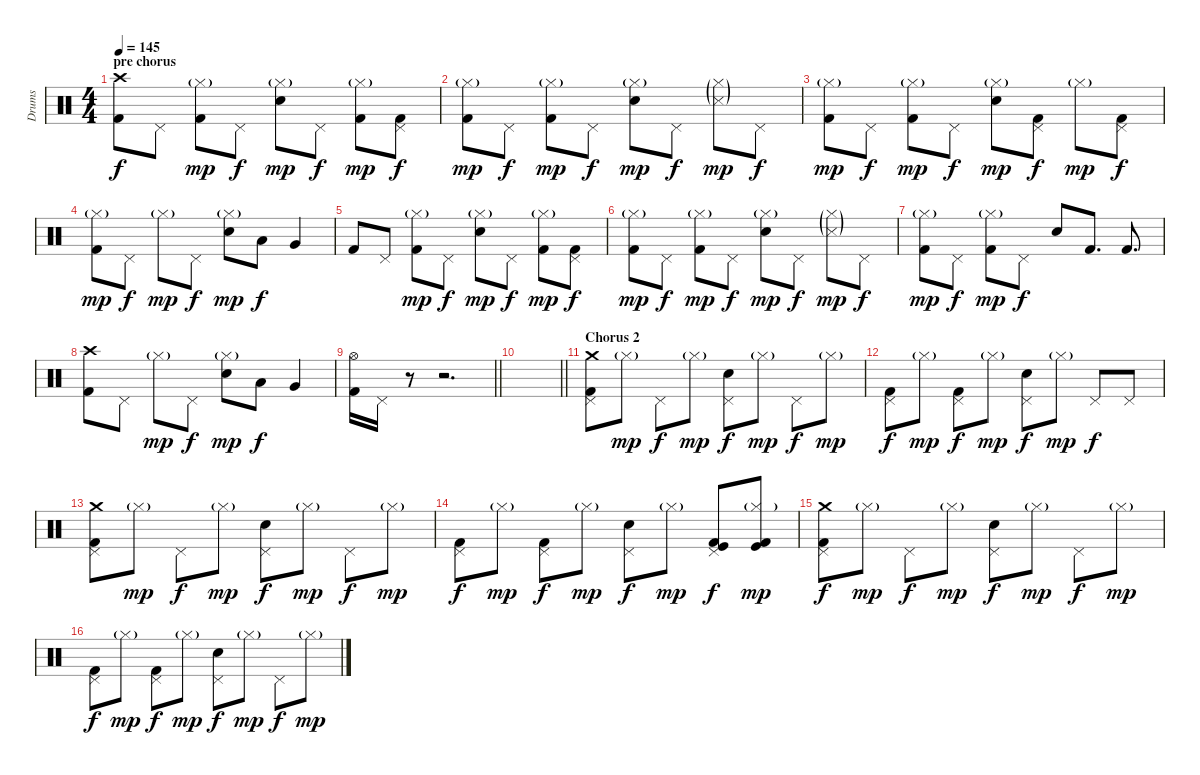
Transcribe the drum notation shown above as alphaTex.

\track ("Drums" "Drums") {instrument percussion}
\staff {score}
\articulation defaults
\ts (4 4)
\section ("" "pre chorus")
\tempo 145
\clef neutral
\ks c
("Crash high (hit)" "Kick (hit) 2").8{dy f} "Pedal Hi-Hat (hit)".8 ("Hi-Hat (closed)"{g} "Kick (hit) 2").8{dy mp} "Pedal Hi-Hat (hit)".8{dy f} ("Hi-Hat (closed)"{g} "Snare (hit) 2").8{dy mp} "Pedal Hi-Hat (hit)".8{dy f} ("Hi-Hat (closed)"{g} "Kick (hit) 2").8{dy mp} ("Pedal Hi-Hat (hit)" "Kick (hit) 2").8{dy f} |
("Hi-Hat (closed)"{g} "Kick (hit) 2").8{dy mp} "Pedal Hi-Hat (hit)".8{dy f} ("Hi-Hat (closed)"{g} "Kick (hit) 2").8{dy mp} "Pedal Hi-Hat (hit)".8{dy f} ("Hi-Hat (closed)"{g} "Snare (hit) 2").8{dy mp} "Pedal Hi-Hat (hit)".8{dy f} ("Hi-Hat (closed)"{g} "Snare (side stick) 3"{g}).8{dy mp} "Pedal Hi-Hat (hit)".8{dy f} |
("Hi-Hat (closed)"{g} "Kick (hit) 2").8{dy mp} "Pedal Hi-Hat (hit)".8{dy f} ("Hi-Hat (closed)"{g} "Kick (hit) 2").8{dy mp} "Pedal Hi-Hat (hit)".8{dy f} ("Hi-Hat (closed)"{g} "Snare (hit) 2").8{dy mp} ("Pedal Hi-Hat (hit)" "Kick (hit) 2").8{dy f} "Hi-Hat (closed)"{g}.8{dy mp} ("Pedal Hi-Hat (hit)" "Kick (hit) 2").8{dy f} |
("Hi-Hat (closed)"{g} "Kick (hit) 2").8{dy mp} "Pedal Hi-Hat (hit)".8{dy f} "Hi-Hat (closed)"{g}.8{dy mp} "Pedal Hi-Hat (hit)".8{dy f} ("Hi-Hat (closed)"{g} "Snare (hit) 2").8{dy mp} "Low Tom (hit)".8{dy f} "Very Low Tom (hit)".4 |
"Kick (hit) 2".8 "Pedal Hi-Hat (hit)".8 ("Hi-Hat (closed)"{g} "Kick (hit) 2").8{dy mp} "Pedal Hi-Hat (hit)".8{dy f} ("Hi-Hat (closed)"{g} "Snare (hit) 2").8{dy mp} "Pedal Hi-Hat (hit)".8{dy f} ("Hi-Hat (closed)"{g} "Kick (hit) 2").8{dy mp} ("Pedal Hi-Hat (hit)" "Kick (hit) 2").8{dy f} |
("Hi-Hat (closed)"{g} "Kick (hit) 2").8{dy mp} "Pedal Hi-Hat (hit)".8{dy f} ("Hi-Hat (closed)"{g} "Kick (hit) 2").8{dy mp} "Pedal Hi-Hat (hit)".8{dy f} ("Hi-Hat (closed)"{g} "Snare (hit) 2").8{dy mp} "Pedal Hi-Hat (hit)".8{dy f} ("Hi-Hat (closed)"{g} "Snare (side stick) 3"{g}).8{dy mp} "Pedal Hi-Hat (hit)".8{dy f} |
("Hi-Hat (closed)"{g} "Kick (hit) 2").8{dy mp} "Pedal Hi-Hat (hit)".8{dy f} ("Hi-Hat (closed)"{g} "Kick (hit) 2").8{dy mp} "Pedal Hi-Hat (hit)".8{dy f} "Snare (hit) 2".8 "Kick (hit) 2".8{d} "Kick (hit) 2".8{d} |
("Crash high (hit)" "Kick (hit) 2").8 "Pedal Hi-Hat (hit)".8 "Hi-Hat (closed)"{g}.8{dy mp} "Pedal Hi-Hat (hit)".8{dy f} ("Hi-Hat (closed)"{g} "Snare (hit) 2").8{dy mp} "Low Tom (hit)".8{dy f} "Very Low Tom (hit)".4 |
\barLineRight lightlight
("Hi-Hat (open)" "Kick (hit) 2").16 "Pedal Hi-Hat (hit)".16 r.8 r.2{d} |
\barLineRight lightlight
|
\section ("" "Chorus 2")
("Pedal Hi-Hat (hit)" "Crash medium (hit)" "Kick (hit) 2").8 "Hi-Hat (closed)"{g}.8{dy mp} "Pedal Hi-Hat (hit)".8{dy f} "Hi-Hat (closed)"{g}.8{dy mp} ("Pedal Hi-Hat (hit)" "Snare (hit) 2").8{dy f} "Hi-Hat (closed)"{g}.8{dy mp} "Pedal Hi-Hat (hit)".8{dy f} "Hi-Hat (closed)"{g}.8{dy mp} |
("Pedal Hi-Hat (hit)" "Kick (hit) 2").8{dy f} "Hi-Hat (closed)"{g}.8{dy mp} ("Pedal Hi-Hat (hit)" "Kick (hit) 2").8{dy f} "Hi-Hat (closed)"{g}.8{dy mp} ("Pedal Hi-Hat (hit)" "Snare (hit) 2").8{dy f} "Hi-Hat (closed)"{g}.8{dy mp} "Pedal Hi-Hat (hit)".8{dy f} "Pedal Hi-Hat (hit)".8 |
("Pedal Hi-Hat (hit)" "Crash medium (hit)" "Kick (hit) 2").8 "Hi-Hat (closed)"{g}.8{dy mp} "Pedal Hi-Hat (hit)".8{dy f} "Hi-Hat (closed)"{g}.8{dy mp} ("Pedal Hi-Hat (hit)" "Snare (hit) 2").8{dy f} "Hi-Hat (closed)"{g}.8{dy mp} "Pedal Hi-Hat (hit)".8{dy f} "Hi-Hat (closed)"{g}.8{dy mp} |
("Pedal Hi-Hat (hit)" "Kick (hit) 2").8{dy f} "Hi-Hat (closed)"{g}.8{dy mp} ("Pedal Hi-Hat (hit)" "Kick (hit) 2").8{dy f} "Hi-Hat (closed)"{g}.8{dy mp} ("Pedal Hi-Hat (hit)" "Snare (hit) 2").8{dy f} "Hi-Hat (closed)"{g}.8{dy mp} ("Pedal Hi-Hat (hit)" "Kick (hit)" "Kick (hit) 2").8{dy f} ("Hi-Hat (closed)"{g} "Kick (hit)" "Kick (hit) 2").8{dy mp} |
("Pedal Hi-Hat (hit)" "Crash medium (hit)" "Kick (hit) 2").8{dy f} "Hi-Hat (closed)"{g}.8{dy mp} "Pedal Hi-Hat (hit)".8{dy f} "Hi-Hat (closed)"{g}.8{dy mp} ("Pedal Hi-Hat (hit)" "Snare (hit) 2").8{dy f} "Hi-Hat (closed)"{g}.8{dy mp} "Pedal Hi-Hat (hit)".8{dy f} "Hi-Hat (closed)"{g}.8{dy mp} |
("Pedal Hi-Hat (hit)" "Kick (hit) 2").8{dy f} "Hi-Hat (closed)"{g}.8{dy mp} ("Pedal Hi-Hat (hit)" "Kick (hit) 2").8{dy f} "Hi-Hat (closed)"{g}.8{dy mp} ("Pedal Hi-Hat (hit)" "Snare (hit) 2").8{dy f} "Hi-Hat (closed)"{g}.8{dy mp} "Pedal Hi-Hat (hit)".8{dy f} "Hi-Hat (closed)"{g}.8{dy mp}
